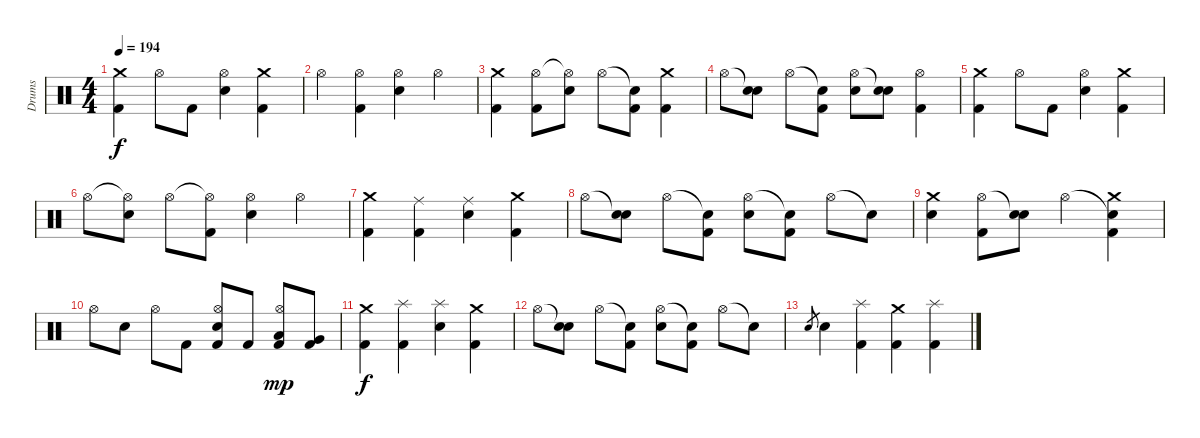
\track ("Drums" "Drums") {instrument percussion}
\staff {score}
\articulation defaults
\ts (4 4)
\tempo 194
\clef neutral
\ks c
("Crash medium (hit)" "Kick (hit) 2").4{dy f} "Hi-Hat (open)".8 "Kick (hit) 2".8 ("Hi-Hat (open)" "Snare (hit) 2").4 ("Crash medium (hit)" "Kick (hit) 2").4 |
"Hi-Hat (open)".4 ("Hi-Hat (open)" "Kick (hit) 2").4 ("Hi-Hat (open)" "Snare (hit) 2").4 "Hi-Hat (open)".4 |
("Crash medium (hit)" "Kick (hit) 2").4 ("Hi-Hat (open)" "Kick (hit) 2").8 ("Hi-Hat (open)"{t} "Snare (hit) 2").8 "Hi-Hat (open)".8 ("Snare (hit)"{t} "Kick (hit) 2").8 ("Crash medium (hit)" "Kick (hit) 2").4 |
"Hi-Hat (open)".8 ("Snare (hit)"{t} "Snare (hit) 2").8 "Hi-Hat (open)".8 ("Snare (hit)"{t} "Kick (hit) 2").8 ("Hi-Hat (open)" "Snare (hit) 2").8 ("Snare (hit)"{t} "Snare (hit) 2").8 ("Hi-Hat (open)" "Kick (hit) 2").4 |
("Crash medium (hit)" "Kick (hit) 2").4 "Hi-Hat (open)".8 "Kick (hit) 2".8 ("Hi-Hat (open)" "Snare (hit) 2").4 ("Crash medium (hit)" "Kick (hit) 2").4 |
"Hi-Hat (open)".8 ("Hi-Hat (open)"{t} "Snare (hit) 2").8 "Hi-Hat (open)".8 ("Hi-Hat (open)"{t} "Kick (hit) 2").8 ("Hi-Hat (open)" "Snare (hit) 2").4 "Hi-Hat (open)".4 |
("Crash medium (hit)" "Kick (hit) 2").4 ("Ride (middle)" "Kick (hit) 2").4 ("Ride (middle)" "Snare (hit) 2").4 ("Crash medium (hit)" "Kick (hit) 2").4 |
"Hi-Hat (open)".8 ("Snare (hit)"{t} "Snare (hit) 2").8 "Hi-Hat (open)".8 ("Snare (hit)"{t} "Kick (hit) 2").8 ("Hi-Hat (open)" "Snare (hit) 2").8 ("Snare (hit)"{t} "Kick (hit) 2").8 "Hi-Hat (open)".8 "Snare (hit)"{t}.8 |
("Crash medium (hit)" "Snare (hit) 2").4 ("Hi-Hat (open)" "Kick (hit) 2").8 ("Snare (hit)"{t} "Snare (hit) 2").8 "Hi-Hat (open)".4 ("Snare (hit)"{t} "Crash medium (hit)" "Kick (hit) 2").4 |
"Hi-Hat (open)".8 "Snare (hit) 2".8 "Hi-Hat (open)".8 "Kick (hit) 2".8 ("Hi-Hat (open)" "Snare (hit) 2" "Kick (hit) 2").8 "Kick (hit) 2".8 ("Hi-Hat (open)" "Low Tom (hit)" "Kick (hit) 2").8{dy mp} ("Very Low Tom (hit)" "Kick (hit) 2").8 |
("Crash medium (hit)" "Kick (hit) 2").4{dy f} ("Splash (hit)" "Kick (hit) 2").4 ("Splash (hit)" "Snare (hit) 2").4 ("Crash medium (hit)" "Kick (hit) 2").4 |
"Hi-Hat (open)".8 ("Snare (hit)"{t} "Snare (hit) 2").8 "Hi-Hat (open)".8 ("Snare (hit)"{t} "Kick (hit) 2").8 ("Hi-Hat (open)" "Snare (hit) 2").8 ("Snare (hit)"{t} "Kick (hit) 2").8 "Hi-Hat (open)".8 "Snare (hit)"{t}.8 |
"Snare (hit) 2".8{gr} "Snare (hit) 2".4 ("Splash (hit)" "Kick (hit) 2").4 ("Crash medium (hit)" "Kick (hit) 2").4 ("Splash (hit)" "Kick (hit) 2").4
